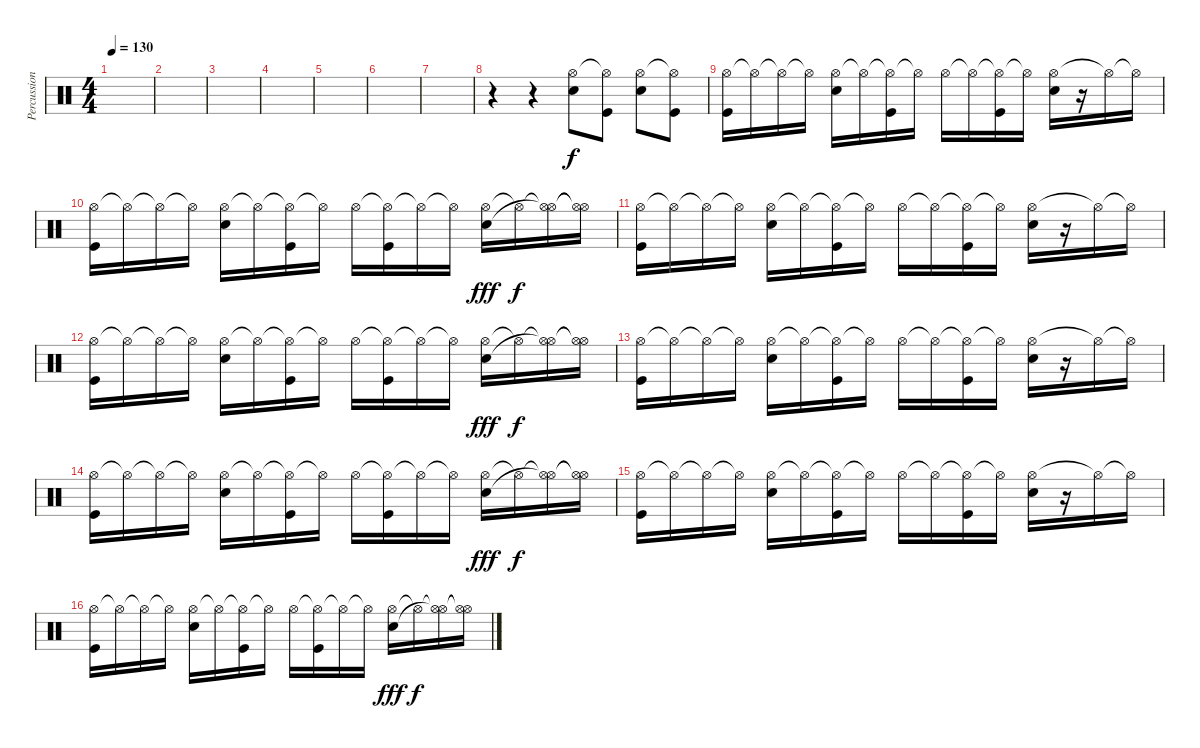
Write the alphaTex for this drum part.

\track ("Percussion" "Percussion") {instrument percussion}
\staff {score}
\articulation defaults
\ts (4 4)
\tempo 130
\clef neutral
\ks c
|
|
|
|
|
|
|
r.4{volume 16} r.4 ("Hi-Hat (open)" "Snare (hit) 2").8 ("Hi-Hat (open)"{t} "Kick (hit)").8 ("Hi-Hat (open)" "Snare (hit) 2").8 ("Hi-Hat (open)"{t} "Kick (hit)").8 |
("Hi-Hat (open)" "Kick (hit)").16 "Hi-Hat (open)"{t}.16 "Hi-Hat (open)"{t}.16 "Hi-Hat (open)"{t}.16 ("Hi-Hat (open)" "Snare (hit) 2").16 "Hi-Hat (open)"{t}.16 ("Hi-Hat (open)"{t} "Kick (hit)").16 "Hi-Hat (open)"{t}.16 "Hi-Hat (open)".16 "Hi-Hat (open)"{t}.16 ("Hi-Hat (open)"{t} "Kick (hit)").16 "Hi-Hat (open)"{t}.16 ("Hi-Hat (open)" "Snare (hit) 2").16 r.16 "Hi-Hat (open)"{t}.16 "Hi-Hat (open)"{t}.16 |
("Hi-Hat (open)" "Kick (hit)").16 "Hi-Hat (open)"{t}.16 "Hi-Hat (open)"{t}.16 "Hi-Hat (open)"{t}.16 ("Hi-Hat (open)" "Snare (hit) 2").16 "Hi-Hat (open)"{t}.16 ("Hi-Hat (open)"{t} "Kick (hit)").16 "Hi-Hat (open)"{t}.16 "Hi-Hat (open)".16 ("Hi-Hat (open)"{t} "Kick (hit)").16 "Hi-Hat (open)"{t}.16 "Hi-Hat (open)"{t}.16 ("Hi-Hat (open)" "Snare (hit) 2").16{dy fff} "Hi-Hat (open)"{t}.16{dy f} ("Hi-Hat (open)"{t} "Hi-Hat (open)"{t}).16 ("Hi-Hat (open)"{t} "Hi-Hat (open)"{t}).16 |
("Hi-Hat (open)" "Kick (hit)").16 "Hi-Hat (open)"{t}.16 "Hi-Hat (open)"{t}.16 "Hi-Hat (open)"{t}.16 ("Hi-Hat (open)" "Snare (hit) 2").16 "Hi-Hat (open)"{t}.16 ("Hi-Hat (open)"{t} "Kick (hit)").16 "Hi-Hat (open)"{t}.16 "Hi-Hat (open)".16 "Hi-Hat (open)"{t}.16 ("Hi-Hat (open)"{t} "Kick (hit)").16 "Hi-Hat (open)"{t}.16 ("Hi-Hat (open)" "Snare (hit) 2").16 r.16 "Hi-Hat (open)"{t}.16 "Hi-Hat (open)"{t}.16 |
("Hi-Hat (open)" "Kick (hit)").16 "Hi-Hat (open)"{t}.16 "Hi-Hat (open)"{t}.16 "Hi-Hat (open)"{t}.16 ("Hi-Hat (open)" "Snare (hit) 2").16 "Hi-Hat (open)"{t}.16 ("Hi-Hat (open)"{t} "Kick (hit)").16 "Hi-Hat (open)"{t}.16 "Hi-Hat (open)".16 ("Hi-Hat (open)"{t} "Kick (hit)").16 "Hi-Hat (open)"{t}.16 "Hi-Hat (open)"{t}.16 ("Hi-Hat (open)" "Snare (hit) 2").16{dy fff} "Hi-Hat (open)"{t}.16{dy f} ("Hi-Hat (open)"{t} "Hi-Hat (open)"{t}).16 ("Hi-Hat (open)"{t} "Hi-Hat (open)"{t}).16 |
("Hi-Hat (open)" "Kick (hit)").16 "Hi-Hat (open)"{t}.16 "Hi-Hat (open)"{t}.16 "Hi-Hat (open)"{t}.16 ("Hi-Hat (open)" "Snare (hit) 2").16 "Hi-Hat (open)"{t}.16 ("Hi-Hat (open)"{t} "Kick (hit)").16 "Hi-Hat (open)"{t}.16 "Hi-Hat (open)".16 "Hi-Hat (open)"{t}.16 ("Hi-Hat (open)"{t} "Kick (hit)").16 "Hi-Hat (open)"{t}.16 ("Hi-Hat (open)" "Snare (hit) 2").16 r.16 "Hi-Hat (open)"{t}.16 "Hi-Hat (open)"{t}.16 |
("Hi-Hat (open)" "Kick (hit)").16 "Hi-Hat (open)"{t}.16 "Hi-Hat (open)"{t}.16 "Hi-Hat (open)"{t}.16 ("Hi-Hat (open)" "Snare (hit) 2").16 "Hi-Hat (open)"{t}.16 ("Hi-Hat (open)"{t} "Kick (hit)").16 "Hi-Hat (open)"{t}.16 "Hi-Hat (open)".16 ("Hi-Hat (open)"{t} "Kick (hit)").16 "Hi-Hat (open)"{t}.16 "Hi-Hat (open)"{t}.16 ("Hi-Hat (open)" "Snare (hit) 2").16{dy fff} "Hi-Hat (open)"{t}.16{dy f} ("Hi-Hat (open)"{t} "Hi-Hat (open)"{t}).16 ("Hi-Hat (open)"{t} "Hi-Hat (open)"{t}).16 |
("Hi-Hat (open)" "Kick (hit)").16 "Hi-Hat (open)"{t}.16 "Hi-Hat (open)"{t}.16 "Hi-Hat (open)"{t}.16 ("Hi-Hat (open)" "Snare (hit) 2").16 "Hi-Hat (open)"{t}.16 ("Hi-Hat (open)"{t} "Kick (hit)").16 "Hi-Hat (open)"{t}.16 "Hi-Hat (open)".16 "Hi-Hat (open)"{t}.16 ("Hi-Hat (open)"{t} "Kick (hit)").16 "Hi-Hat (open)"{t}.16 ("Hi-Hat (open)" "Snare (hit) 2").16 r.16 "Hi-Hat (open)"{t}.16 "Hi-Hat (open)"{t}.16 |
("Hi-Hat (open)" "Kick (hit)").16 "Hi-Hat (open)"{t}.16 "Hi-Hat (open)"{t}.16 "Hi-Hat (open)"{t}.16 ("Hi-Hat (open)" "Snare (hit) 2").16 "Hi-Hat (open)"{t}.16 ("Hi-Hat (open)"{t} "Kick (hit)").16 "Hi-Hat (open)"{t}.16 "Hi-Hat (open)".16 ("Hi-Hat (open)"{t} "Kick (hit)").16 "Hi-Hat (open)"{t}.16 "Hi-Hat (open)"{t}.16 ("Hi-Hat (open)" "Snare (hit) 2").16{dy fff} "Hi-Hat (open)"{t}.16{dy f} ("Hi-Hat (open)"{t} "Hi-Hat (open)"{t}).16 ("Hi-Hat (open)"{t} "Hi-Hat (open)"{t}).16
